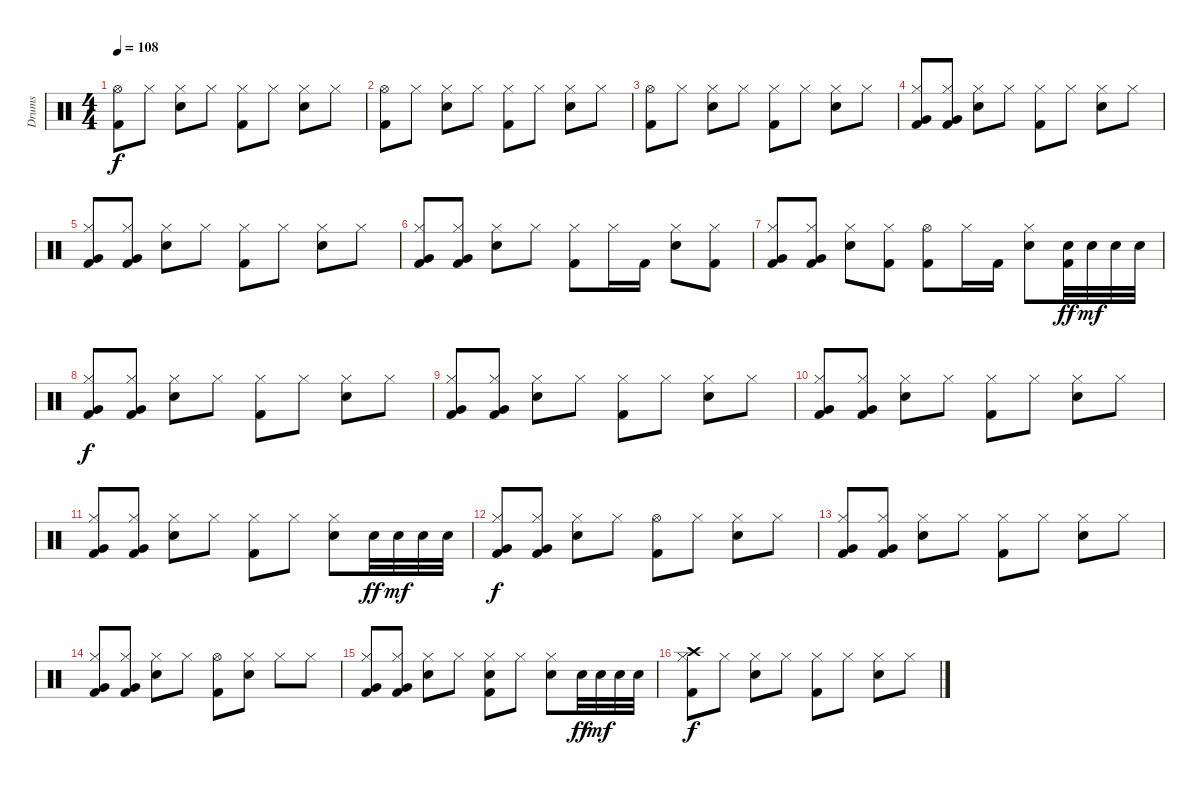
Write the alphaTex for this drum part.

\track ("Drums" "Drums") {instrument percussion}
\staff {score}
\articulation defaults
\ts (4 4)
\tempo 108
\clef neutral
\ks c
("Hi-Hat (open)" "Kick (hit) 2").8{dy f} "Hi-Hat (closed)".8 ("Hi-Hat (closed)" "Snare (hit) 2").8 "Hi-Hat (closed)".8 ("Hi-Hat (closed)" "Kick (hit) 2").8 "Hi-Hat (closed)".8 ("Hi-Hat (closed)" "Snare (hit) 2").8 "Hi-Hat (closed)".8 |
("Hi-Hat (open)" "Kick (hit) 2").8 "Hi-Hat (closed)".8 ("Hi-Hat (closed)" "Snare (hit) 2").8 "Hi-Hat (closed)".8 ("Hi-Hat (closed)" "Kick (hit) 2").8 "Hi-Hat (closed)".8 ("Hi-Hat (closed)" "Snare (hit) 2").8 "Hi-Hat (closed)".8 |
("Hi-Hat (open)" "Kick (hit) 2").8 "Hi-Hat (closed)".8 ("Hi-Hat (closed)" "Snare (hit) 2").8 "Hi-Hat (closed)".8 ("Hi-Hat (closed)" "Kick (hit) 2").8 "Hi-Hat (closed)".8 ("Hi-Hat (closed)" "Snare (hit) 2").8 "Hi-Hat (closed)".8 |
("Very Low Tom (hit)" "Hi-Hat (closed)" "Kick (hit) 2").8 ("Very Low Tom (hit)" "Hi-Hat (closed)" "Kick (hit) 2").8 ("Hi-Hat (closed)" "Snare (hit) 2").8 "Hi-Hat (closed)".8 ("Hi-Hat (closed)" "Kick (hit) 2").8 "Hi-Hat (closed)".8 ("Hi-Hat (closed)" "Snare (hit) 2").8 "Hi-Hat (closed)".8 |
("Very Low Tom (hit)" "Hi-Hat (closed)" "Kick (hit) 2").8 ("Very Low Tom (hit)" "Hi-Hat (closed)" "Kick (hit) 2").8 ("Hi-Hat (closed)" "Snare (hit) 2").8 "Hi-Hat (closed)".8 ("Hi-Hat (closed)" "Kick (hit) 2").8 "Hi-Hat (closed)".8 ("Hi-Hat (closed)" "Snare (hit) 2").8 "Hi-Hat (closed)".8 |
("Very Low Tom (hit)" "Hi-Hat (closed)" "Kick (hit) 2").8 ("Very Low Tom (hit)" "Hi-Hat (closed)" "Kick (hit) 2").8 ("Hi-Hat (closed)" "Snare (hit) 2").8 "Hi-Hat (closed)".8 ("Hi-Hat (closed)" "Kick (hit) 2").8 "Hi-Hat (closed)".16 "Kick (hit) 2".16 ("Hi-Hat (closed)" "Snare (hit) 2").8 ("Hi-Hat (closed)" "Kick (hit) 2").8 |
("Very Low Tom (hit)" "Hi-Hat (closed)" "Kick (hit) 2").8 ("Very Low Tom (hit)" "Hi-Hat (closed)" "Kick (hit) 2").8 ("Hi-Hat (closed)" "Snare (hit) 2").8 ("Hi-Hat (closed)" "Kick (hit) 2").8 ("Hi-Hat (open)" "Kick (hit) 2").8 "Hi-Hat (closed)".16 "Kick (hit) 2".16 ("Hi-Hat (closed)" "Electric Snare (hit)").8 ("Electric Snare (hit)" "Kick (hit) 2").32{dy ff} "Electric Snare (hit)".32{dy mf} "Electric Snare (hit)".32 "Electric Snare (hit)".32 |
("Very Low Tom (hit)" "Hi-Hat (closed)" "Kick (hit) 2").8{dy f} ("Very Low Tom (hit)" "Hi-Hat (closed)" "Kick (hit) 2").8 ("Hi-Hat (closed)" "Snare (hit) 2").8 "Hi-Hat (closed)".8 ("Hi-Hat (closed)" "Kick (hit) 2").8 "Hi-Hat (closed)".8 ("Hi-Hat (closed)" "Snare (hit) 2").8 "Hi-Hat (closed)".8 |
("Very Low Tom (hit)" "Hi-Hat (closed)" "Kick (hit) 2").8 ("Very Low Tom (hit)" "Hi-Hat (closed)" "Kick (hit) 2").8 ("Hi-Hat (closed)" "Snare (hit) 2").8 "Hi-Hat (closed)".8 ("Hi-Hat (closed)" "Kick (hit) 2").8 "Hi-Hat (closed)".8 ("Hi-Hat (closed)" "Snare (hit) 2").8 "Hi-Hat (closed)".8 |
("Very Low Tom (hit)" "Hi-Hat (closed)" "Kick (hit) 2").8 ("Very Low Tom (hit)" "Hi-Hat (closed)" "Kick (hit) 2").8 ("Hi-Hat (closed)" "Snare (hit) 2").8 "Hi-Hat (closed)".8 ("Hi-Hat (closed)" "Kick (hit) 2").8 "Hi-Hat (closed)".8 ("Hi-Hat (closed)" "Snare (hit) 2").8 "Hi-Hat (closed)".8 |
("Very Low Tom (hit)" "Hi-Hat (closed)" "Kick (hit) 2").8 ("Very Low Tom (hit)" "Hi-Hat (closed)" "Kick (hit) 2").8 ("Hi-Hat (closed)" "Snare (hit) 2").8 "Hi-Hat (closed)".8 ("Hi-Hat (closed)" "Kick (hit) 2").8 "Hi-Hat (closed)".8 ("Hi-Hat (closed)" "Electric Snare (hit)").8 "Electric Snare (hit)".32{dy ff} "Electric Snare (hit)".32{dy mf} "Electric Snare (hit)".32 "Electric Snare (hit)".32 |
("Very Low Tom (hit)" "Hi-Hat (closed)" "Kick (hit) 2").8{dy f} ("Very Low Tom (hit)" "Hi-Hat (closed)" "Kick (hit) 2").8 ("Hi-Hat (closed)" "Snare (hit) 2").8 "Hi-Hat (closed)".8 ("Hi-Hat (open)" "Kick (hit) 2").8 "Hi-Hat (closed)".8 ("Hi-Hat (closed)" "Snare (hit) 2").8 "Hi-Hat (closed)".8 |
("Very Low Tom (hit)" "Hi-Hat (closed)" "Kick (hit) 2").8 ("Very Low Tom (hit)" "Hi-Hat (closed)" "Kick (hit) 2").8 ("Hi-Hat (closed)" "Snare (hit) 2").8 "Hi-Hat (closed)".8 ("Hi-Hat (closed)" "Kick (hit) 2").8 "Hi-Hat (closed)".8 ("Hi-Hat (closed)" "Snare (hit) 2").8 "Hi-Hat (closed)".8 |
("Very Low Tom (hit)" "Hi-Hat (closed)" "Kick (hit) 2").8 ("Very Low Tom (hit)" "Hi-Hat (closed)" "Kick (hit) 2").8 ("Hi-Hat (closed)" "Snare (hit) 2").8 "Hi-Hat (closed)".8 ("Hi-Hat (open)" "Kick (hit) 2").8 ("Hi-Hat (closed)" "Snare (hit) 2").8 "Hi-Hat (closed)".8 "Hi-Hat (closed)".8 |
("Very Low Tom (hit)" "Hi-Hat (closed)" "Kick (hit) 2").8 ("Very Low Tom (hit)" "Hi-Hat (closed)" "Kick (hit) 2").8 ("Hi-Hat (closed)" "Snare (hit) 2").8 "Hi-Hat (closed)".8 ("Hi-Hat (closed)" "Snare (hit) 2" "Kick (hit) 2").8 "Hi-Hat (closed)".8 ("Hi-Hat (closed)" "Electric Snare (hit)").8 "Electric Snare (hit)".32{dy ff} "Electric Snare (hit)".32{dy mf} "Electric Snare (hit)".32 "Electric Snare (hit)".32 |
("Crash high (hit)" "Hi-Hat (closed)" "Kick (hit) 2").8{dy f} "Hi-Hat (closed)".8 ("Hi-Hat (closed)" "Snare (hit) 2").8 "Hi-Hat (closed)".8 ("Hi-Hat (closed)" "Kick (hit) 2").8 "Hi-Hat (closed)".8 ("Hi-Hat (closed)" "Snare (hit) 2").8 "Hi-Hat (closed)".8
